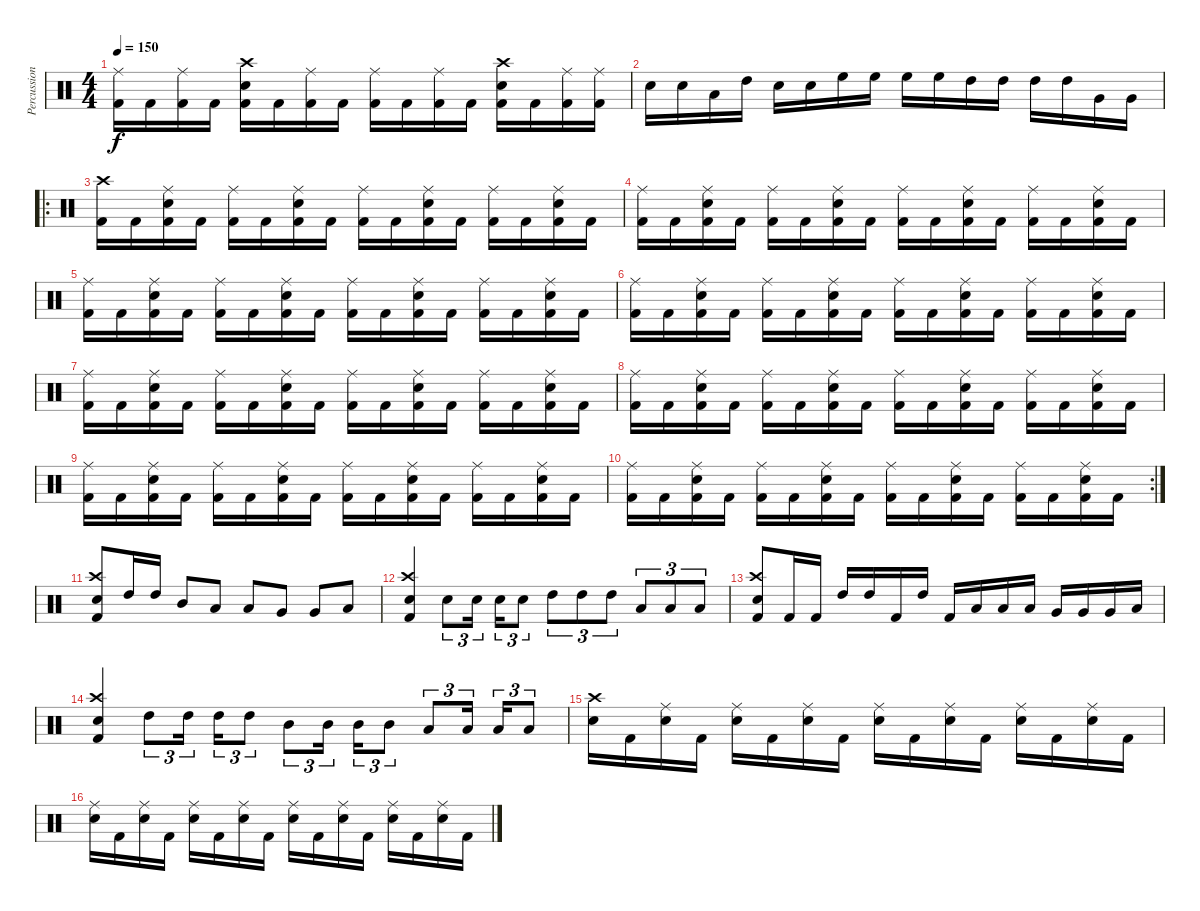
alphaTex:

\track ("Percussion" "Percussion") {instrument percussion}
\staff {score}
\articulation defaults
\ts (4 4)
\tempo 150
\clef neutral
\ks c
("Ride (middle)" "Kick (hit) 2").16{dy f} "Kick (hit) 2".16 ("Ride (middle)" "Kick (hit) 2").16 "Kick (hit) 2".16 ("Crash high (hit)" "Electric Snare (hit)" "Kick (hit) 2").16 "Kick (hit) 2".16 ("Ride (middle)" "Kick (hit) 2").16 "Kick (hit) 2".16 ("Ride (middle)" "Kick (hit) 2").16 "Kick (hit) 2".16 ("Ride (middle)" "Kick (hit) 2").16 "Kick (hit) 2".16 ("Crash high (hit)" "Electric Snare (hit)" "Kick (hit) 2").16 "Kick (hit) 2".16 ("Ride (middle)" "Kick (hit) 2").16 ("Ride (middle)" "Kick (hit) 2").16 |
"Electric Snare (hit)".16 "Electric Snare (hit)".16 "Low Tom (hit)".16 "High Tom (hit)".16 "Electric Snare (hit)".16 "Electric Snare (hit)".16 "High Floor Tom (hit)".16 "High Floor Tom (hit)".16 "High Floor Tom (hit)".16 "High Floor Tom (hit)".16 "High Tom (hit)".16 "High Tom (hit)".16 "High Tom (hit)".16 "High Tom (hit)".16 "Very Low Tom (hit)".16 "Very Low Tom (hit)".16 |
\ro
("Crash high (hit)" "Kick (hit) 2").16 "Kick (hit) 2".16 ("Ride (middle)" "Electric Snare (hit)" "Kick (hit) 2").16 "Kick (hit) 2".16 ("Ride (middle)" "Kick (hit) 2").16 "Kick (hit) 2".16 ("Ride (middle)" "Electric Snare (hit)" "Kick (hit) 2").16 "Kick (hit) 2".16 ("Ride (middle)" "Kick (hit) 2").16 "Kick (hit) 2".16 ("Ride (middle)" "Electric Snare (hit)" "Kick (hit) 2").16 "Kick (hit) 2".16 ("Ride (middle)" "Kick (hit) 2").16 "Kick (hit) 2".16 ("Ride (middle)" "Electric Snare (hit)" "Kick (hit) 2").16 "Kick (hit) 2".16 |
("Ride (middle)" "Kick (hit) 2").16 "Kick (hit) 2".16 ("Ride (middle)" "Electric Snare (hit)" "Kick (hit) 2").16 "Kick (hit) 2".16 ("Ride (middle)" "Kick (hit) 2").16 "Kick (hit) 2".16 ("Ride (middle)" "Electric Snare (hit)" "Kick (hit) 2").16 "Kick (hit) 2".16 ("Ride (middle)" "Kick (hit) 2").16 "Kick (hit) 2".16 ("Ride (middle)" "Electric Snare (hit)" "Kick (hit) 2").16 "Kick (hit) 2".16 ("Ride (middle)" "Kick (hit) 2").16 "Kick (hit) 2".16 ("Ride (middle)" "Electric Snare (hit)" "Kick (hit) 2").16 "Kick (hit) 2".16 |
("Ride (middle)" "Kick (hit) 2").16 "Kick (hit) 2".16 ("Ride (middle)" "Electric Snare (hit)" "Kick (hit) 2").16 "Kick (hit) 2".16 ("Ride (middle)" "Kick (hit) 2").16 "Kick (hit) 2".16 ("Ride (middle)" "Electric Snare (hit)" "Kick (hit) 2").16 "Kick (hit) 2".16 ("Ride (middle)" "Kick (hit) 2").16 "Kick (hit) 2".16 ("Ride (middle)" "Electric Snare (hit)" "Kick (hit) 2").16 "Kick (hit) 2".16 ("Ride (middle)" "Kick (hit) 2").16 "Kick (hit) 2".16 ("Ride (middle)" "Electric Snare (hit)" "Kick (hit) 2").16 "Kick (hit) 2".16 |
("Ride (middle)" "Kick (hit) 2").16 "Kick (hit) 2".16 ("Ride (middle)" "Electric Snare (hit)" "Kick (hit) 2").16 "Kick (hit) 2".16 ("Ride (middle)" "Kick (hit) 2").16 "Kick (hit) 2".16 ("Ride (middle)" "Electric Snare (hit)" "Kick (hit) 2").16 "Kick (hit) 2".16 ("Ride (middle)" "Kick (hit) 2").16 "Kick (hit) 2".16 ("Ride (middle)" "Electric Snare (hit)" "Kick (hit) 2").16 "Kick (hit) 2".16 ("Ride (middle)" "Kick (hit) 2").16 "Kick (hit) 2".16 ("Ride (middle)" "Electric Snare (hit)" "Kick (hit) 2").16 "Kick (hit) 2".16 |
("Ride (middle)" "Kick (hit) 2").16 "Kick (hit) 2".16 ("Ride (middle)" "Electric Snare (hit)" "Kick (hit) 2").16 "Kick (hit) 2".16 ("Ride (middle)" "Kick (hit) 2").16 "Kick (hit) 2".16 ("Ride (middle)" "Electric Snare (hit)" "Kick (hit) 2").16 "Kick (hit) 2".16 ("Ride (middle)" "Kick (hit) 2").16 "Kick (hit) 2".16 ("Ride (middle)" "Electric Snare (hit)" "Kick (hit) 2").16 "Kick (hit) 2".16 ("Ride (middle)" "Kick (hit) 2").16 "Kick (hit) 2".16 ("Ride (middle)" "Electric Snare (hit)" "Kick (hit) 2").16 "Kick (hit) 2".16 |
("Ride (middle)" "Kick (hit) 2").16 "Kick (hit) 2".16 ("Ride (middle)" "Electric Snare (hit)" "Kick (hit) 2").16 "Kick (hit) 2".16 ("Ride (middle)" "Kick (hit) 2").16 "Kick (hit) 2".16 ("Ride (middle)" "Electric Snare (hit)" "Kick (hit) 2").16 "Kick (hit) 2".16 ("Ride (middle)" "Kick (hit) 2").16 "Kick (hit) 2".16 ("Ride (middle)" "Electric Snare (hit)" "Kick (hit) 2").16 "Kick (hit) 2".16 ("Ride (middle)" "Kick (hit) 2").16 "Kick (hit) 2".16 ("Ride (middle)" "Electric Snare (hit)" "Kick (hit) 2").16 "Kick (hit) 2".16 |
("Ride (middle)" "Kick (hit) 2").16 "Kick (hit) 2".16 ("Ride (middle)" "Electric Snare (hit)" "Kick (hit) 2").16 "Kick (hit) 2".16 ("Ride (middle)" "Kick (hit) 2").16 "Kick (hit) 2".16 ("Ride (middle)" "Electric Snare (hit)" "Kick (hit) 2").16 "Kick (hit) 2".16 ("Ride (middle)" "Kick (hit) 2").16 "Kick (hit) 2".16 ("Ride (middle)" "Electric Snare (hit)" "Kick (hit) 2").16 "Kick (hit) 2".16 ("Ride (middle)" "Kick (hit) 2").16 "Kick (hit) 2".16 ("Ride (middle)" "Electric Snare (hit)" "Kick (hit) 2").16 "Kick (hit) 2".16 |
\rc 2
("Ride (middle)" "Kick (hit) 2").16 "Kick (hit) 2".16 ("Ride (middle)" "Electric Snare (hit)" "Kick (hit) 2").16 "Kick (hit) 2".16 ("Ride (middle)" "Kick (hit) 2").16 "Kick (hit) 2".16 ("Ride (middle)" "Electric Snare (hit)" "Kick (hit) 2").16 "Kick (hit) 2".16 ("Ride (middle)" "Kick (hit) 2").16 "Kick (hit) 2".16 ("Ride (middle)" "Electric Snare (hit)" "Kick (hit) 2").16 "Kick (hit) 2".16 ("Ride (middle)" "Kick (hit) 2").16 "Kick (hit) 2".16 ("Ride (middle)" "Electric Snare (hit)" "Kick (hit) 2").16 "Kick (hit) 2".16 |
("Crash high (hit)" "Electric Snare (hit)" "Kick (hit) 2").8 "High Tom (hit)".16 "High Tom (hit)".16 "Mid Tom (hit)".8 "Low Tom (hit)".8 "Low Tom (hit)".8 "Very Low Tom (hit)".8 "Very Low Tom (hit)".8 "Low Floor Tom (hit)".8 |
("Crash high (hit)" "Electric Snare (hit)" "Kick (hit) 2").4 "Electric Snare (hit)".8{tu (3 2)} "Electric Snare (hit)".16{tu (3 2) beam splitsecondary} "Electric Snare (hit)".16{tu (3 2)} "Electric Snare (hit)".8{tu (3 2)} "High Tom (hit)".8{tu (3 2)} "High Tom (hit)".8{tu (3 2)} "High Tom (hit)".8{tu (3 2)} "Low Tom (hit)".8{tu (3 2)} "Low Tom (hit)".8{tu (3 2)} "Low Tom (hit)".8{tu (3 2)} |
("Crash high (hit)" "Electric Snare (hit)" "Kick (hit) 2").8 "Kick (hit) 2".16 "Kick (hit) 2".16 "High Tom (hit)".16 "High Tom (hit)".16 "Kick (hit) 2".16 "High Tom (hit)".16 "Kick (hit) 2".16 "Low Tom (hit)".16 "Low Tom (hit)".16 "Low Tom (hit)".16 "Very Low Tom (hit)".16 "Very Low Tom (hit)".16 "Very Low Tom (hit)".16 "Low Floor Tom (hit)".16 |
("Crash high (hit)" "Electric Snare (hit)" "Kick (hit) 2").4 "High Tom (hit)".8{tu (3 2)} "High Tom (hit)".16{tu (3 2) beam splitsecondary} "High Tom (hit)".16{tu (3 2)} "High Tom (hit)".8{tu (3 2)} "Mid Tom (hit)".8{tu (3 2)} "Mid Tom (hit)".16{tu (3 2) beam splitsecondary} "Mid Tom (hit)".16{tu (3 2)} "Mid Tom (hit)".8{tu (3 2)} "Low Tom (hit)".8{tu (3 2)} "Low Tom (hit)".16{tu (3 2) beam splitsecondary} "Low Tom (hit)".16{tu (3 2)} "Low Tom (hit)".8{tu (3 2)} |
("Crash high (hit)" "Electric Snare (hit)").16 "Kick (hit) 2".16 ("Ride (middle)" "Electric Snare (hit)").16 "Kick (hit) 2".16 ("Ride (middle)" "Electric Snare (hit)").16 "Kick (hit) 2".16 ("Ride (middle)" "Electric Snare (hit)").16 "Kick (hit) 2".16 ("Ride (middle)" "Electric Snare (hit)").16 "Kick (hit) 2".16 ("Ride (middle)" "Electric Snare (hit)").16 "Kick (hit) 2".16 ("Ride (middle)" "Electric Snare (hit)").16 "Kick (hit) 2".16 ("Ride (middle)" "Electric Snare (hit)").16 "Kick (hit) 2".16 |
("Ride (middle)" "Electric Snare (hit)").16 "Kick (hit) 2".16 ("Ride (middle)" "Electric Snare (hit)").16 "Kick (hit) 2".16 ("Ride (middle)" "Electric Snare (hit)").16 "Kick (hit) 2".16 ("Ride (middle)" "Electric Snare (hit)").16 "Kick (hit) 2".16 ("Ride (middle)" "Electric Snare (hit)").16 "Kick (hit) 2".16 ("Ride (middle)" "Electric Snare (hit)").16 "Kick (hit) 2".16 ("Ride (middle)" "Electric Snare (hit)").16 "Kick (hit) 2".16 ("Ride (middle)" "Electric Snare (hit)").16 "Kick (hit) 2".16
